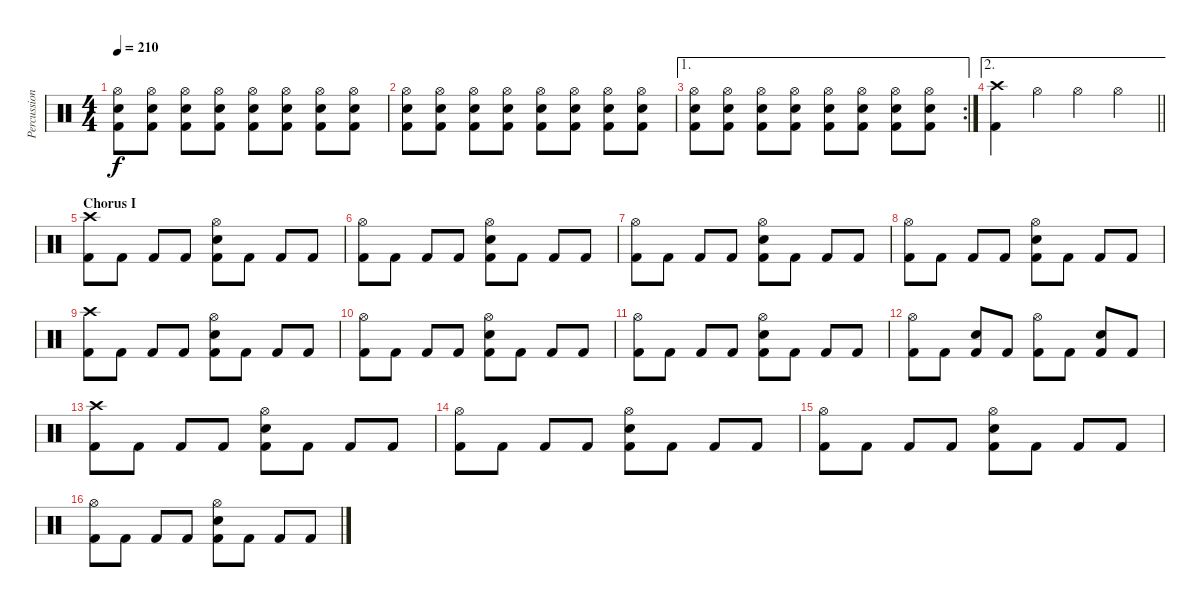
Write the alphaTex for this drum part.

\track ("Percussion" "Percussion") {instrument percussion}
\staff {score}
\articulation defaults
\ts (4 4)
\tempo 210
\clef neutral
\ks c
("Hi-Hat (open)" "Snare (hit) 2" "Kick (hit) 2").8{dy f} ("Hi-Hat (open)" "Snare (hit) 2" "Kick (hit) 2").8 ("Hi-Hat (open)" "Snare (hit) 2" "Kick (hit) 2").8 ("Hi-Hat (open)" "Snare (hit) 2" "Kick (hit) 2").8 ("Hi-Hat (open)" "Snare (hit) 2" "Kick (hit) 2").8 ("Hi-Hat (open)" "Snare (hit) 2" "Kick (hit) 2").8 ("Hi-Hat (open)" "Snare (hit) 2" "Kick (hit) 2").8 ("Hi-Hat (open)" "Snare (hit) 2" "Kick (hit) 2").8 |
("Hi-Hat (open)" "Snare (hit) 2" "Kick (hit) 2").8 ("Hi-Hat (open)" "Snare (hit) 2" "Kick (hit) 2").8 ("Hi-Hat (open)" "Snare (hit) 2" "Kick (hit) 2").8 ("Hi-Hat (open)" "Snare (hit) 2" "Kick (hit) 2").8 ("Hi-Hat (open)" "Snare (hit) 2" "Kick (hit) 2").8 ("Hi-Hat (open)" "Snare (hit) 2" "Kick (hit) 2").8 ("Hi-Hat (open)" "Snare (hit) 2" "Kick (hit) 2").8 ("Hi-Hat (open)" "Snare (hit) 2" "Kick (hit) 2").8 |
\ae 1
\rc 2
("Hi-Hat (open)" "Snare (hit) 2" "Kick (hit) 2").8 ("Hi-Hat (open)" "Snare (hit) 2" "Kick (hit) 2").8 ("Hi-Hat (open)" "Snare (hit) 2" "Kick (hit) 2").8 ("Hi-Hat (open)" "Snare (hit) 2" "Kick (hit) 2").8 ("Hi-Hat (open)" "Snare (hit) 2" "Kick (hit) 2").8 ("Hi-Hat (open)" "Snare (hit) 2" "Kick (hit) 2").8 ("Hi-Hat (open)" "Snare (hit) 2" "Kick (hit) 2").8 ("Hi-Hat (open)" "Snare (hit) 2" "Kick (hit) 2").8 |
\ae 2
\barLineRight lightlight
("Crash high (hit)" "Kick (hit) 2").4 "Hi-Hat (open)".4 "Hi-Hat (open)".4 "Hi-Hat (open)".4 |
\section ("" "Chorus I")
("Crash high (hit)" "Kick (hit) 2").8 "Kick (hit) 2".8 "Kick (hit) 2".8 "Kick (hit) 2".8 ("Hi-Hat (open)" "Snare (hit) 2" "Kick (hit) 2").8 "Kick (hit) 2".8 "Kick (hit) 2".8 "Kick (hit) 2".8 |
("Hi-Hat (open)" "Kick (hit) 2").8 "Kick (hit) 2".8 "Kick (hit) 2".8 "Kick (hit) 2".8 ("Hi-Hat (open)" "Snare (hit) 2" "Kick (hit) 2").8 "Kick (hit) 2".8 "Kick (hit) 2".8 "Kick (hit) 2".8 |
("Hi-Hat (open)" "Kick (hit) 2").8 "Kick (hit) 2".8 "Kick (hit) 2".8 "Kick (hit) 2".8 ("Hi-Hat (open)" "Snare (hit) 2" "Kick (hit) 2").8 "Kick (hit) 2".8 "Kick (hit) 2".8 "Kick (hit) 2".8 |
("Hi-Hat (open)" "Kick (hit) 2").8 "Kick (hit) 2".8 "Kick (hit) 2".8 "Kick (hit) 2".8 ("Hi-Hat (open)" "Snare (hit) 2" "Kick (hit) 2").8 "Kick (hit) 2".8 "Kick (hit) 2".8 "Kick (hit) 2".8 |
("Crash high (hit)" "Kick (hit) 2").8 "Kick (hit) 2".8 "Kick (hit) 2".8 "Kick (hit) 2".8 ("Hi-Hat (open)" "Snare (hit) 2" "Kick (hit) 2").8 "Kick (hit) 2".8 "Kick (hit) 2".8 "Kick (hit) 2".8 |
("Hi-Hat (open)" "Kick (hit) 2").8 "Kick (hit) 2".8 "Kick (hit) 2".8 "Kick (hit) 2".8 ("Hi-Hat (open)" "Snare (hit) 2" "Kick (hit) 2").8 "Kick (hit) 2".8 "Kick (hit) 2".8 "Kick (hit) 2".8 |
("Hi-Hat (open)" "Kick (hit) 2").8 "Kick (hit) 2".8 "Kick (hit) 2".8 "Kick (hit) 2".8 ("Hi-Hat (open)" "Snare (hit) 2" "Kick (hit) 2").8 "Kick (hit) 2".8 "Kick (hit) 2".8 "Kick (hit) 2".8 |
("Hi-Hat (open)" "Kick (hit) 2").8 "Kick (hit) 2".8 ("Snare (hit) 2" "Kick (hit) 2").8 "Kick (hit) 2".8 ("Hi-Hat (open)" "Kick (hit) 2").8 "Kick (hit) 2".8 ("Snare (hit) 2" "Kick (hit) 2").8 "Kick (hit) 2".8 |
("Crash high (hit)" "Kick (hit) 2").8 "Kick (hit) 2".8 "Kick (hit) 2".8 "Kick (hit) 2".8 ("Hi-Hat (open)" "Snare (hit) 2" "Kick (hit) 2").8 "Kick (hit) 2".8 "Kick (hit) 2".8 "Kick (hit) 2".8 |
("Hi-Hat (open)" "Kick (hit) 2").8 "Kick (hit) 2".8 "Kick (hit) 2".8 "Kick (hit) 2".8 ("Hi-Hat (open)" "Snare (hit) 2" "Kick (hit) 2").8 "Kick (hit) 2".8 "Kick (hit) 2".8 "Kick (hit) 2".8 |
("Hi-Hat (open)" "Kick (hit) 2").8 "Kick (hit) 2".8 "Kick (hit) 2".8 "Kick (hit) 2".8 ("Hi-Hat (open)" "Snare (hit) 2" "Kick (hit) 2").8 "Kick (hit) 2".8 "Kick (hit) 2".8 "Kick (hit) 2".8 |
("Hi-Hat (open)" "Kick (hit) 2").8 "Kick (hit) 2".8 "Kick (hit) 2".8 "Kick (hit) 2".8 ("Hi-Hat (open)" "Snare (hit) 2" "Kick (hit) 2").8 "Kick (hit) 2".8 "Kick (hit) 2".8 "Kick (hit) 2".8
